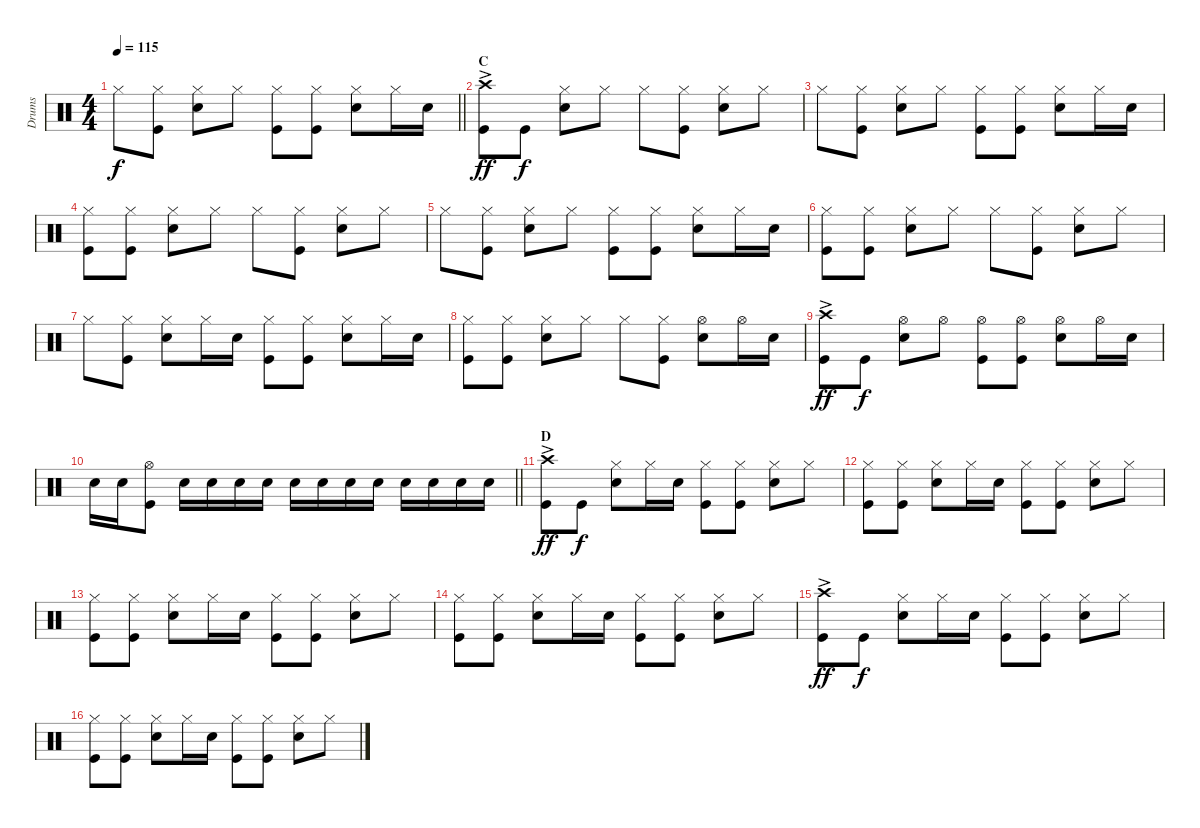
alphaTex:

\track ("Drums" "Drums") {instrument percussion}
\staff {score}
\articulation defaults
\ts (4 4)
\tempo 115
\clef neutral
\barLineRight lightlight
\ks c "Hi-Hat (closed)".8{dy f}
("Hi-Hat (closed)" "Kick (hit)").8 ("Hi-Hat (closed)" "Snare (hit) 2").8 "Hi-Hat (closed)".8 ("Hi-Hat (closed)" "Kick (hit)").8 ("Hi-Hat (closed)" "Kick (hit)").8 ("Hi-Hat (closed)" "Snare (hit) 2").8 "Hi-Hat (closed)".16 "Snare (hit) 2".16 |
\section ("" "C")
("Crash high (hit)"{ac} "Kick (hit)").8{dy ff} "Kick (hit)".8{dy f} ("Snare (hit) 2" "Hi-Hat (closed)").8 "Hi-Hat (closed)".8 "Hi-Hat (closed)".8 ("Hi-Hat (closed)" "Kick (hit)").8 ("Hi-Hat (closed)" "Snare (hit) 2").8 "Hi-Hat (closed)".8 |
"Hi-Hat (closed)".8 ("Hi-Hat (closed)" "Kick (hit)").8 ("Hi-Hat (closed)" "Snare (hit) 2").8 "Hi-Hat (closed)".8 ("Hi-Hat (closed)" "Kick (hit)").8 ("Hi-Hat (closed)" "Kick (hit)").8 ("Hi-Hat (closed)" "Snare (hit) 2").8 "Hi-Hat (closed)".16 "Snare (hit) 2".16 |
("Hi-Hat (closed)" "Kick (hit)").8 ("Hi-Hat (closed)" "Kick (hit)").8 ("Hi-Hat (closed)" "Snare (hit) 2").8 "Hi-Hat (closed)".8 "Hi-Hat (closed)".8 ("Hi-Hat (closed)" "Kick (hit)").8 ("Hi-Hat (closed)" "Snare (hit) 2").8 "Hi-Hat (closed)".8 |
"Hi-Hat (closed)".8 ("Hi-Hat (closed)" "Kick (hit)").8 ("Hi-Hat (closed)" "Snare (hit) 2").8 "Hi-Hat (closed)".8 ("Hi-Hat (closed)" "Kick (hit)").8 ("Hi-Hat (closed)" "Kick (hit)").8 ("Hi-Hat (closed)" "Snare (hit) 2").8 "Hi-Hat (closed)".16 "Snare (hit) 2".16 |
("Hi-Hat (closed)" "Kick (hit)").8 ("Hi-Hat (closed)" "Kick (hit)").8 ("Hi-Hat (closed)" "Snare (hit) 2").8 "Hi-Hat (closed)".8 "Hi-Hat (closed)".8 ("Hi-Hat (closed)" "Kick (hit)").8 ("Hi-Hat (closed)" "Snare (hit) 2").8 "Hi-Hat (closed)".8 |
"Hi-Hat (closed)".8 ("Hi-Hat (closed)" "Kick (hit)").8 ("Hi-Hat (closed)" "Snare (hit) 2").8 "Hi-Hat (closed)".16 "Snare (hit) 2".16 ("Hi-Hat (closed)" "Kick (hit)").8 ("Hi-Hat (closed)" "Kick (hit)").8 ("Hi-Hat (closed)" "Snare (hit) 2").8 "Hi-Hat (closed)".16 "Snare (hit) 2".16 |
("Hi-Hat (closed)" "Kick (hit)").8 ("Hi-Hat (closed)" "Kick (hit)").8 ("Hi-Hat (closed)" "Snare (hit) 2").8 "Hi-Hat (closed)".8 "Hi-Hat (closed)".8 ("Hi-Hat (closed)" "Kick (hit)").8 ("Snare (hit) 2" "Hi-Hat (open)").8 "Hi-Hat (open)".16 "Snare (hit) 2".16 |
("Kick (hit)" "Crash high (hit)"{ac}).8{dy ff} "Kick (hit)".8{dy f} ("Hi-Hat (open)" "Snare (hit) 2").8 "Hi-Hat (open)".8 ("Hi-Hat (open)" "Kick (hit)").8 ("Hi-Hat (open)" "Kick (hit)").8 ("Hi-Hat (open)" "Snare (hit) 2").8 "Hi-Hat (open)".16 "Snare (hit) 2".16 |
\barLineRight lightlight "Snare (hit) 2".16 "Snare (hit) 2".16
("Hi-Hat (open)" "Kick (hit)").8 "Snare (hit) 2".16 "Snare (hit) 2".16 "Snare (hit) 2".16 "Snare (hit) 2".16 "Snare (hit) 2".16 "Snare (hit) 2".16 "Snare (hit) 2".16 "Snare (hit) 2".16 "Snare (hit) 2".16 "Snare (hit) 2".16 "Snare (hit) 2".16 "Snare (hit) 2".16 |
\section ("" "D")
("Crash high (hit)"{ac} "Kick (hit)").8{dy ff} "Kick (hit)".8{dy f} ("Snare (hit) 2" "Hi-Hat (closed)").8 "Hi-Hat (closed)".16 "Snare (hit) 2".16 ("Hi-Hat (closed)" "Kick (hit)").8 ("Hi-Hat (closed)" "Kick (hit)").8 ("Hi-Hat (closed)" "Snare (hit) 2").8 "Hi-Hat (closed)".8 |
("Hi-Hat (closed)" "Kick (hit)").8 ("Hi-Hat (closed)" "Kick (hit)").8 ("Hi-Hat (closed)" "Snare (hit) 2").8 "Hi-Hat (closed)".16 "Snare (hit) 2".16 ("Hi-Hat (closed)" "Kick (hit)").8 ("Hi-Hat (closed)" "Kick (hit)").8 ("Hi-Hat (closed)" "Snare (hit) 2").8 "Hi-Hat (closed)".8 |
("Hi-Hat (closed)" "Kick (hit)").8 ("Hi-Hat (closed)" "Kick (hit)").8 ("Hi-Hat (closed)" "Snare (hit) 2").8 "Hi-Hat (closed)".16 "Snare (hit) 2".16 ("Hi-Hat (closed)" "Kick (hit)").8 ("Hi-Hat (closed)" "Kick (hit)").8 ("Hi-Hat (closed)" "Snare (hit) 2").8 "Hi-Hat (closed)".8 |
("Hi-Hat (closed)" "Kick (hit)").8 ("Hi-Hat (closed)" "Kick (hit)").8 ("Hi-Hat (closed)" "Snare (hit) 2").8 "Hi-Hat (closed)".16 "Snare (hit) 2".16 ("Hi-Hat (closed)" "Kick (hit)").8 ("Hi-Hat (closed)" "Kick (hit)").8 ("Hi-Hat (closed)" "Snare (hit) 2").8 "Hi-Hat (closed)".8 |
("Crash high (hit)"{ac} "Kick (hit)").8{dy ff} "Kick (hit)".8{dy f} ("Snare (hit) 2" "Hi-Hat (closed)").8 "Hi-Hat (closed)".16 "Snare (hit) 2".16 ("Hi-Hat (closed)" "Kick (hit)").8 ("Hi-Hat (closed)" "Kick (hit)").8 ("Hi-Hat (closed)" "Snare (hit) 2").8 "Hi-Hat (closed)".8 |
("Hi-Hat (closed)" "Kick (hit)").8 ("Hi-Hat (closed)" "Kick (hit)").8 ("Hi-Hat (closed)" "Snare (hit) 2").8 "Hi-Hat (closed)".16 "Snare (hit) 2".16 ("Hi-Hat (closed)" "Kick (hit)").8 ("Hi-Hat (closed)" "Kick (hit)").8 ("Hi-Hat (closed)" "Snare (hit) 2").8 "Hi-Hat (closed)".8
